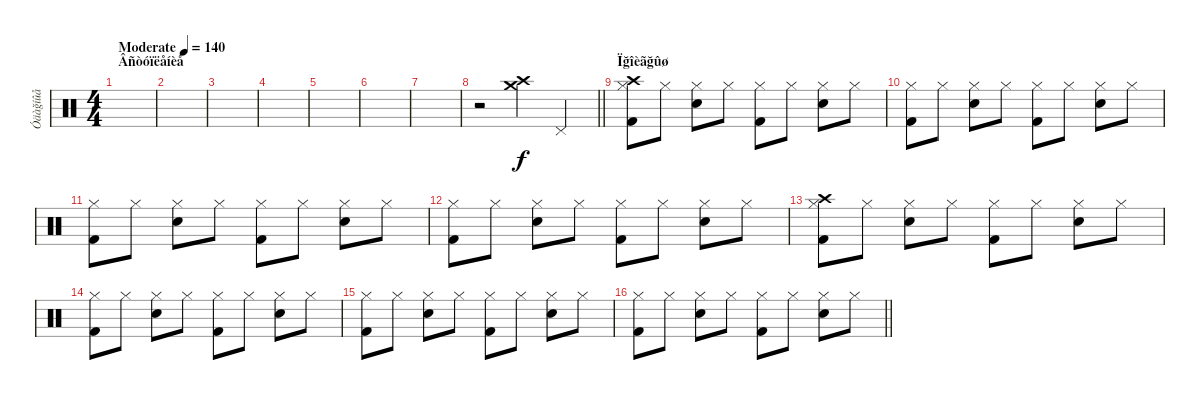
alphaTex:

\track ("Óäàğíûå" "Óäàğíûå") {instrument percussion}
\staff {score}
\articulation defaults
\ts (4 4)
\section ("" "Âñòóïëåíèå")
\tempo (140 "Moderate")
\clef neutral
\ks c
|
|
|
|
|
|
|
\barLineRight lightlight
r.2 ("Crash high (hit)" "Crash medium (hit)").4 "Pedal Hi-Hat (hit)".4 |
\section ("" "Ïğîèãğûø")
("Hi-Hat (closed)" "Kick (hit) 2" "Crash high (hit)").8 "Hi-Hat (closed)".8 ("Hi-Hat (closed)" "Snare (hit) 2").8 "Hi-Hat (closed)".8 ("Hi-Hat (closed)" "Kick (hit) 2").8 "Hi-Hat (closed)".8 ("Hi-Hat (closed)" "Snare (hit) 2").8 "Hi-Hat (closed)".8 |
("Hi-Hat (closed)" "Kick (hit) 2").8 "Hi-Hat (closed)".8 ("Hi-Hat (closed)" "Snare (hit) 2").8 "Hi-Hat (closed)".8 ("Hi-Hat (closed)" "Kick (hit) 2").8 "Hi-Hat (closed)".8 ("Hi-Hat (closed)" "Snare (hit) 2").8 "Hi-Hat (closed)".8 |
("Hi-Hat (closed)" "Kick (hit) 2").8 "Hi-Hat (closed)".8 ("Hi-Hat (closed)" "Snare (hit) 2").8 "Hi-Hat (closed)".8 ("Hi-Hat (closed)" "Kick (hit) 2").8 "Hi-Hat (closed)".8 ("Hi-Hat (closed)" "Snare (hit) 2").8 "Hi-Hat (closed)".8 |
("Hi-Hat (closed)" "Kick (hit) 2").8 "Hi-Hat (closed)".8 ("Hi-Hat (closed)" "Snare (hit) 2").8 "Hi-Hat (closed)".8 ("Hi-Hat (closed)" "Kick (hit) 2").8 "Hi-Hat (closed)".8 ("Hi-Hat (closed)" "Snare (hit) 2").8 "Hi-Hat (closed)".8 |
("Hi-Hat (closed)" "Kick (hit) 2" "Crash high (hit)").8 "Hi-Hat (closed)".8 ("Hi-Hat (closed)" "Snare (hit) 2").8 "Hi-Hat (closed)".8 ("Hi-Hat (closed)" "Kick (hit) 2").8 "Hi-Hat (closed)".8 ("Hi-Hat (closed)" "Snare (hit) 2").8 "Hi-Hat (closed)".8 |
("Hi-Hat (closed)" "Kick (hit) 2").8 "Hi-Hat (closed)".8 ("Hi-Hat (closed)" "Snare (hit) 2").8 "Hi-Hat (closed)".8 ("Hi-Hat (closed)" "Kick (hit) 2").8 "Hi-Hat (closed)".8 ("Hi-Hat (closed)" "Snare (hit) 2").8 "Hi-Hat (closed)".8 |
("Hi-Hat (closed)" "Kick (hit) 2").8 "Hi-Hat (closed)".8 ("Hi-Hat (closed)" "Snare (hit) 2").8 "Hi-Hat (closed)".8 ("Hi-Hat (closed)" "Kick (hit) 2").8 "Hi-Hat (closed)".8 ("Hi-Hat (closed)" "Snare (hit) 2").8 "Hi-Hat (closed)".8 |
\barLineRight lightlight
("Hi-Hat (closed)" "Kick (hit) 2").8 "Hi-Hat (closed)".8 ("Hi-Hat (closed)" "Snare (hit) 2").8 "Hi-Hat (closed)".8 ("Hi-Hat (closed)" "Kick (hit) 2").8 "Hi-Hat (closed)".8 ("Hi-Hat (closed)" "Snare (hit) 2").8 "Hi-Hat (closed)".8
